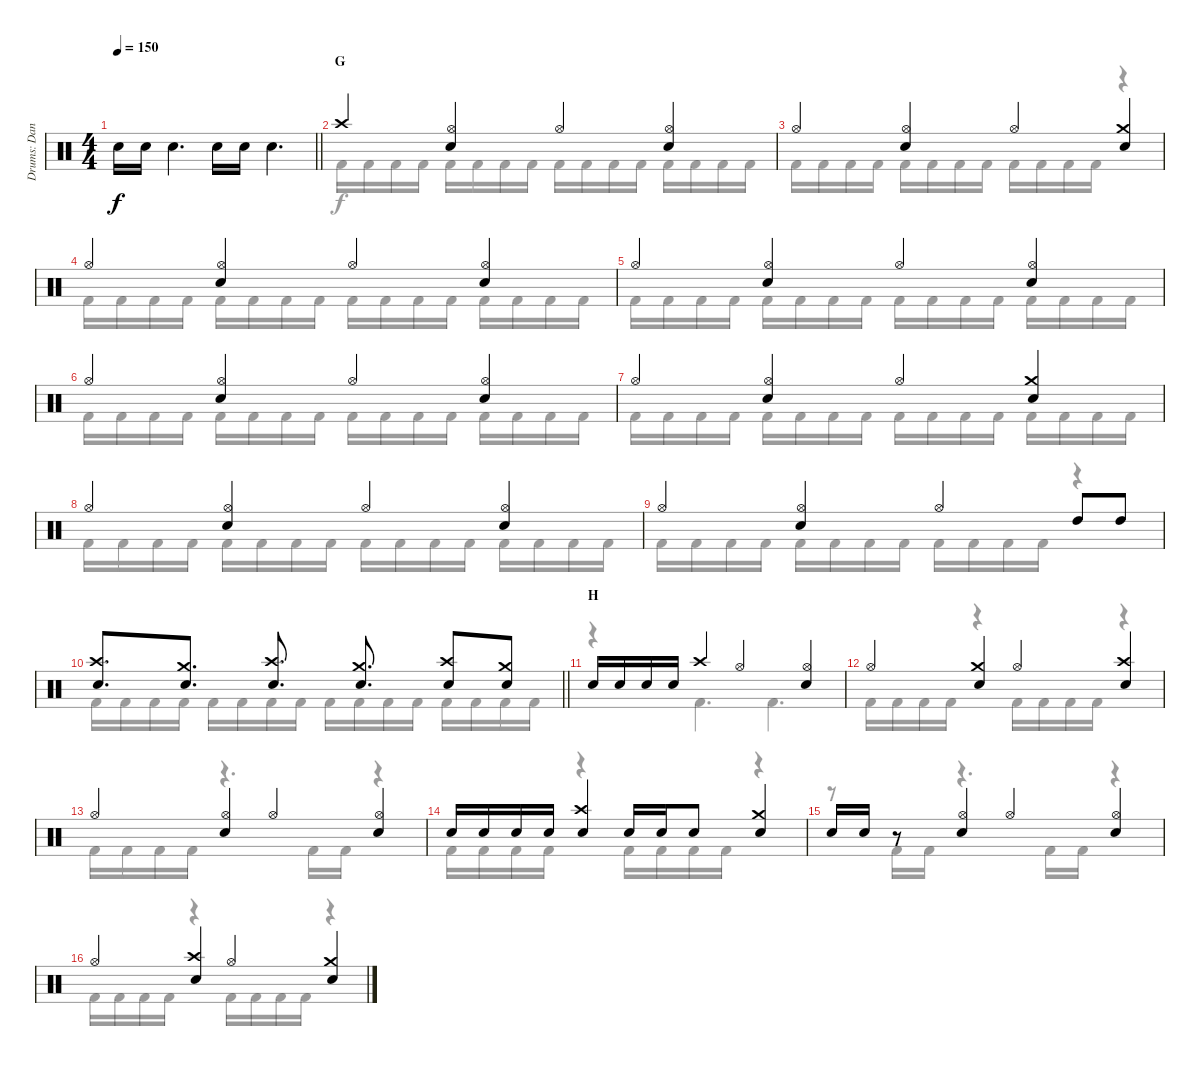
\track ("Drums: Dana" "Drums: Dan") {instrument percussion}
\staff {score}
\articulation defaults
\voice
\ts (4 4)
\tempo 150
\clef neutral
\barLineRight lightlight
\ks c "Snare (hit) 2".16{dy f} "Snare (hit) 2".16 "Snare (hit) 2".4{d} "Snare (hit) 2".16 "Snare (hit) 2".16 "Snare (hit) 2".4{d}
|
\section ("" "G")
"Crash high (hit)".4 ("Hi-Hat (open)" "Snare (hit) 2").4 "Hi-Hat (open)".4 ("Hi-Hat (open)" "Snare (hit) 2").4 |
"Hi-Hat (open)".4 ("Hi-Hat (open)" "Snare (hit) 2").4 "Hi-Hat (open)".4 ("Crash medium (hit)" "Snare (hit) 2").4 |
"Hi-Hat (open)".4 ("Hi-Hat (open)" "Snare (hit) 2").4 "Hi-Hat (open)".4 ("Hi-Hat (open)" "Snare (hit) 2").4 |
"Hi-Hat (open)".4 ("Hi-Hat (open)" "Snare (hit) 2").4 "Hi-Hat (open)".4 ("Hi-Hat (open)" "Snare (hit) 2").4 |
"Hi-Hat (open)".4 ("Hi-Hat (open)" "Snare (hit) 2").4 "Hi-Hat (open)".4 ("Hi-Hat (open)" "Snare (hit) 2").4 |
"Hi-Hat (open)".4 ("Hi-Hat (open)" "Snare (hit) 2").4 "Hi-Hat (open)".4 ("Crash medium (hit)" "Snare (hit) 2").4 |
"Hi-Hat (open)".4 ("Hi-Hat (open)" "Snare (hit) 2").4 "Hi-Hat (open)".4 ("Hi-Hat (open)" "Snare (hit) 2").4 |
"Hi-Hat (open)".4 ("Hi-Hat (open)" "Snare (hit) 2").4 "Hi-Hat (open)".4 "High Tom (hit)".8 "High Tom (hit)".8 |
\barLineRight lightlight
("Crash high (hit)" "Snare (hit) 2").8{d} ("Crash medium (hit)" "Snare (hit) 2").8{d} ("Crash high (hit)" "Snare (hit) 2").8{d} ("Crash medium (hit)" "Snare (hit) 2").8{d} ("Crash high (hit)" "Snare (hit) 2").8 ("Crash medium (hit)" "Snare (hit) 2").8 |
\section ("" "H")
"Snare (hit) 2".16 "Snare (hit) 2".16 "Snare (hit) 2".16 "Snare (hit) 2".16 "Crash high (hit)".4 "Hi-Hat (open)".4 ("Hi-Hat (open)" "Snare (hit) 2").4 |
"Hi-Hat (open)".4 ("Crash medium (hit)" "Snare (hit) 2").4 "Hi-Hat (open)".4 ("Crash high (hit)" "Snare (hit) 2").4 |
"Hi-Hat (open)".4 ("Hi-Hat (open)" "Snare (hit) 2").4 "Hi-Hat (open)".4 ("Hi-Hat (open)" "Snare (hit) 2").4 |
"Snare (hit) 2".16 "Snare (hit) 2".16 "Snare (hit) 2".16 "Snare (hit) 2".16 ("Crash high (hit)" "Snare (hit) 2").4 "Snare (hit) 2".16 "Snare (hit) 2".16 "Snare (hit) 2".8 ("Crash medium (hit)" "Snare (hit) 2").4 |
"Snare (hit) 2".16 "Snare (hit) 2".16 r.8 ("Hi-Hat (open)" "Snare (hit) 2").4 "Hi-Hat (open)".4 ("Hi-Hat (open)" "Snare (hit) 2").4 |
"Hi-Hat (open)".4 ("Crash high (hit)" "Snare (hit) 2").4 "Hi-Hat (open)".4 ("Crash medium (hit)" "Snare (hit) 2").4
\voice
\clef neutral
\ottava regular
\simile none
\barLineRight lightlight
\ks c
|
"Kick (hit) 2".16 "Kick (hit) 2".16 "Kick (hit) 2".16 "Kick (hit) 2".16 "Kick (hit) 2".16 "Kick (hit) 2".16 "Kick (hit) 2".16 "Kick (hit) 2".16 "Kick (hit) 2".16 "Kick (hit) 2".16 "Kick (hit) 2".16 "Kick (hit) 2".16 "Kick (hit) 2".16 "Kick (hit) 2".16 "Kick (hit) 2".16 "Kick (hit) 2".16 |
"Kick (hit) 2".16 "Kick (hit) 2".16 "Kick (hit) 2".16 "Kick (hit) 2".16 "Kick (hit) 2".16 "Kick (hit) 2".16 "Kick (hit) 2".16 "Kick (hit) 2".16 "Kick (hit) 2".16 "Kick (hit) 2".16 "Kick (hit) 2".16 "Kick (hit) 2".16 r.4 |
"Kick (hit) 2".16 "Kick (hit) 2".16 "Kick (hit) 2".16 "Kick (hit) 2".16 "Kick (hit) 2".16 "Kick (hit) 2".16 "Kick (hit) 2".16 "Kick (hit) 2".16 "Kick (hit) 2".16 "Kick (hit) 2".16 "Kick (hit) 2".16 "Kick (hit) 2".16 "Kick (hit) 2".16 "Kick (hit) 2".16 "Kick (hit) 2".16 "Kick (hit) 2".16 |
"Kick (hit) 2".16 "Kick (hit) 2".16 "Kick (hit) 2".16 "Kick (hit) 2".16 "Kick (hit) 2".16 "Kick (hit) 2".16 "Kick (hit) 2".16 "Kick (hit) 2".16 "Kick (hit) 2".16 "Kick (hit) 2".16 "Kick (hit) 2".16 "Kick (hit) 2".16 "Kick (hit) 2".16 "Kick (hit) 2".16 "Kick (hit) 2".16 "Kick (hit) 2".16 |
"Kick (hit) 2".16 "Kick (hit) 2".16 "Kick (hit) 2".16 "Kick (hit) 2".16 "Kick (hit) 2".16 "Kick (hit) 2".16 "Kick (hit) 2".16 "Kick (hit) 2".16 "Kick (hit) 2".16 "Kick (hit) 2".16 "Kick (hit) 2".16 "Kick (hit) 2".16 "Kick (hit) 2".16 "Kick (hit) 2".16 "Kick (hit) 2".16 "Kick (hit) 2".16 |
"Kick (hit) 2".16 "Kick (hit) 2".16 "Kick (hit) 2".16 "Kick (hit) 2".16 "Kick (hit) 2".16 "Kick (hit) 2".16 "Kick (hit) 2".16 "Kick (hit) 2".16 "Kick (hit) 2".16 "Kick (hit) 2".16 "Kick (hit) 2".16 "Kick (hit) 2".16 "Kick (hit) 2".16 "Kick (hit) 2".16 "Kick (hit) 2".16 "Kick (hit) 2".16 |
"Kick (hit) 2".16 "Kick (hit) 2".16 "Kick (hit) 2".16 "Kick (hit) 2".16 "Kick (hit) 2".16 "Kick (hit) 2".16 "Kick (hit) 2".16 "Kick (hit) 2".16 "Kick (hit) 2".16 "Kick (hit) 2".16 "Kick (hit) 2".16 "Kick (hit) 2".16 "Kick (hit) 2".16 "Kick (hit) 2".16 "Kick (hit) 2".16 "Kick (hit) 2".16 |
"Kick (hit) 2".16 "Kick (hit) 2".16 "Kick (hit) 2".16 "Kick (hit) 2".16 "Kick (hit) 2".16 "Kick (hit) 2".16 "Kick (hit) 2".16 "Kick (hit) 2".16 "Kick (hit) 2".16 "Kick (hit) 2".16 "Kick (hit) 2".16 "Kick (hit) 2".16 r.4 |
\barLineRight lightlight "Kick (hit) 2".16 "Kick (hit) 2".16 "Kick (hit) 2".16 "Kick (hit) 2".16 "Kick (hit) 2".16 "Kick (hit) 2".16 "Kick (hit) 2".16 "Kick (hit) 2".16 "Kick (hit) 2".16 "Kick (hit) 2".16 "Kick (hit) 2".16 "Kick (hit) 2".16 "Kick (hit) 2".16 "Kick (hit) 2".16 "Kick (hit) 2".16 "Kick (hit) 2".16
|
r.4 "Kick (hit) 2".4{d} "Kick (hit) 2".4{d} |
"Kick (hit) 2".16 "Kick (hit) 2".16 "Kick (hit) 2".16 "Kick (hit) 2".16 r.4 "Kick (hit) 2".16 "Kick (hit) 2".16 "Kick (hit) 2".16 "Kick (hit) 2".16 r.4 |
"Kick (hit) 2".16 "Kick (hit) 2".16 "Kick (hit) 2".16 "Kick (hit) 2".16 r.4{d} "Kick (hit) 2".16 "Kick (hit) 2".16 r.4 |
"Kick (hit) 2".16 "Kick (hit) 2".16 "Kick (hit) 2".16 "Kick (hit) 2".16 r.4 "Kick (hit) 2".16 "Kick (hit) 2".16 "Kick (hit) 2".16 "Kick (hit) 2".16 r.4 |
r.8 "Kick (hit) 2".16 "Kick (hit) 2".16 r.4{d} "Kick (hit) 2".16 "Kick (hit) 2".16 r.4 |
"Kick (hit) 2".16 "Kick (hit) 2".16 "Kick (hit) 2".16 "Kick (hit) 2".16 r.4 "Kick (hit) 2".16 "Kick (hit) 2".16 "Kick (hit) 2".16 "Kick (hit) 2".16 r.4
